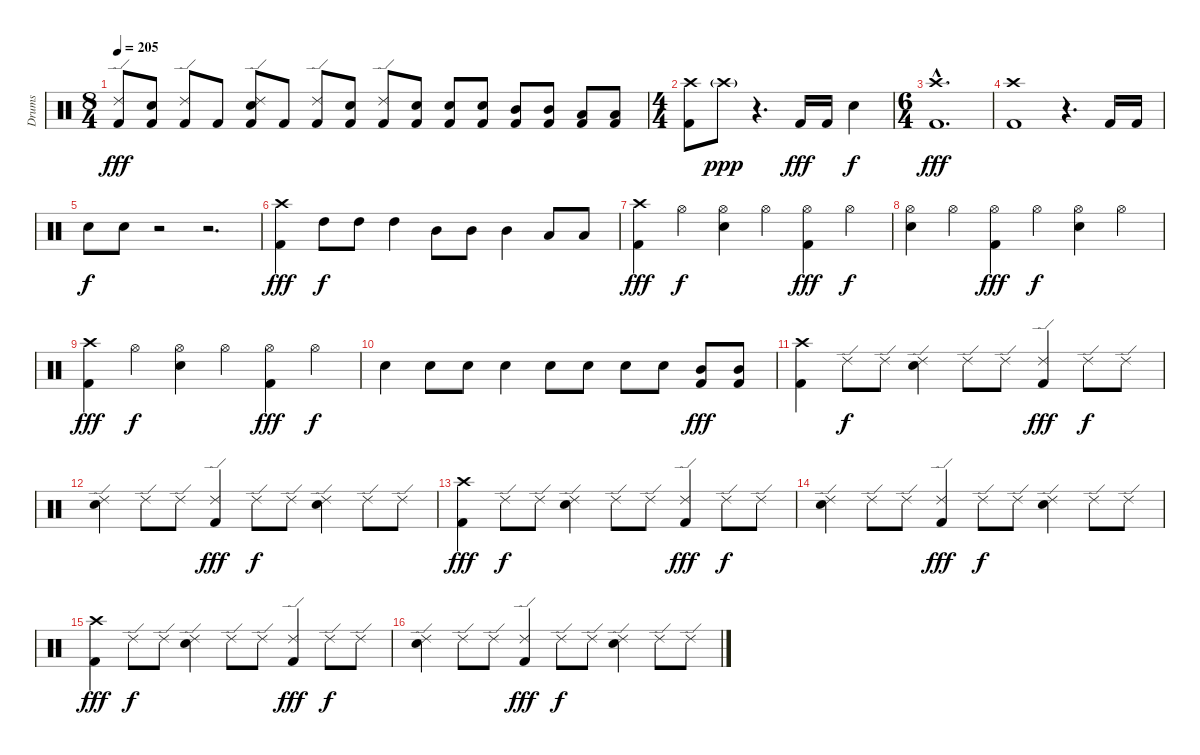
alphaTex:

\track ("Drums" "Drums") {instrument percussion}
\staff {score}
\articulation defaults
\ts (8 4)
\tempo 205
\clef neutral
\ks c
("Ride (edge) 2" "Kick (hit) 2").8{dy fff} ("Snare (hit) 2" "Kick (hit) 2").8 ("Ride (edge) 2" "Kick (hit) 2").8 "Kick (hit) 2".8 ("Ride (edge) 2" "Snare (hit) 2" "Kick (hit) 2").8 "Kick (hit) 2".8 ("Ride (edge) 2" "Kick (hit) 2").8 ("Snare (hit) 2" "Kick (hit) 2").8 ("Ride (edge) 2" "Kick (hit) 2").8 ("Snare (hit) 2" "Kick (hit) 2").8 ("Snare (hit) 2" "Kick (hit) 2").8 ("Snare (hit) 2" "Kick (hit) 2").8 ("Mid Tom (hit)" "Kick (hit) 2").8 ("Mid Tom (hit)" "Kick (hit) 2").8 ("Low Tom (hit)" "Kick (hit) 2").8 ("Low Tom (hit)" "Kick (hit) 2").8 |
\ts (4 4)
("Crash high (hit)" "Kick (hit) 2").8 "Crash high (hit)"{g}.8{dy ppp} r.4{d} "Kick (hit) 2".16{dy fff} "Kick (hit) 2".16 "Snare (hit) 2".4{dy f} |
\ts (6 4)
("Crash high (hit)"{hac} "Kick (hit) 2"{hac}).1{d dy fff} |
("Crash high (hit)" "Kick (hit) 2").1 r.4{d} "Kick (hit) 2".16 "Kick (hit) 2".16 |
"Snare (hit) 2".8{dy f} "Snare (hit) 2".8 r.2 r.2{d} |
("Crash high (hit)" "Kick (hit) 2").4{dy fff} "High Tom (hit)".8{dy f} "High Tom (hit)".8 "High Tom (hit)".4 "Mid Tom (hit)".8 "Mid Tom (hit)".8 "Mid Tom (hit)".4 "Low Tom (hit)".8 "Low Tom (hit)".8 |
("Crash high (hit)" "Kick (hit) 2").4{dy fff} "Hi-Hat (open)".4{dy f} ("Hi-Hat (open)" "Snare (hit) 2").4 "Hi-Hat (open)".4 ("Hi-Hat (open)" "Kick (hit) 2").4{dy fff} "Hi-Hat (open)".4{dy f} |
("Hi-Hat (open)" "Snare (hit) 2").4 "Hi-Hat (open)".4 ("Hi-Hat (open)" "Kick (hit) 2").4{dy fff} "Hi-Hat (open)".4{dy f} ("Hi-Hat (open)" "Snare (hit) 2").4 "Hi-Hat (open)".4 |
("Crash high (hit)" "Kick (hit) 2").4{dy fff} "Hi-Hat (open)".4{dy f} ("Hi-Hat (open)" "Snare (hit) 2").4 "Hi-Hat (open)".4 ("Hi-Hat (open)" "Kick (hit) 2").4{dy fff} "Hi-Hat (open)".4{dy f} |
"Snare (hit) 2".4 "Snare (hit) 2".8 "Snare (hit) 2".8 "Snare (hit) 2".4 "Snare (hit) 2".8 "Snare (hit) 2".8 "Snare (hit) 2".8 "Snare (hit) 2".8 ("Mid Tom (hit)" "Kick (hit) 2").8{dy fff} ("Mid Tom (hit)" "Kick (hit) 2").8 |
("Crash high (hit)" "Kick (hit) 2").4 "Ride (edge) 2".8{dy f} "Ride (edge) 2".8 ("Ride (edge) 2" "Snare (hit) 2").4 "Ride (edge) 2".8 "Ride (edge) 2".8 ("Ride (edge) 2" "Kick (hit) 2").4{dy fff} "Ride (edge) 2".8{dy f} "Ride (edge) 2".8 |
("Ride (edge) 2" "Snare (hit) 2").4 "Ride (edge) 2".8 "Ride (edge) 2".8 ("Ride (edge) 2" "Kick (hit) 2").4{dy fff} "Ride (edge) 2".8{dy f} "Ride (edge) 2".8 ("Ride (edge) 2" "Snare (hit) 2").4 "Ride (edge) 2".8 "Ride (edge) 2".8 |
("Crash high (hit)" "Kick (hit) 2").4{dy fff} "Ride (edge) 2".8{dy f} "Ride (edge) 2".8 ("Ride (edge) 2" "Snare (hit) 2").4 "Ride (edge) 2".8 "Ride (edge) 2".8 ("Ride (edge) 2" "Kick (hit) 2").4{dy fff} "Ride (edge) 2".8{dy f} "Ride (edge) 2".8 |
("Ride (edge) 2" "Snare (hit) 2").4 "Ride (edge) 2".8 "Ride (edge) 2".8 ("Ride (edge) 2" "Kick (hit) 2").4{dy fff} "Ride (edge) 2".8{dy f} "Ride (edge) 2".8 ("Ride (edge) 2" "Snare (hit) 2").4 "Ride (edge) 2".8 "Ride (edge) 2".8 |
("Crash high (hit)" "Kick (hit) 2").4{dy fff} "Ride (edge) 2".8{dy f} "Ride (edge) 2".8 ("Ride (edge) 2" "Snare (hit) 2").4 "Ride (edge) 2".8 "Ride (edge) 2".8 ("Ride (edge) 2" "Kick (hit) 2").4{dy fff} "Ride (edge) 2".8{dy f} "Ride (edge) 2".8 |
("Ride (edge) 2" "Snare (hit) 2").4 "Ride (edge) 2".8 "Ride (edge) 2".8 ("Ride (edge) 2" "Kick (hit) 2").4{dy fff} "Ride (edge) 2".8{dy f} "Ride (edge) 2".8 ("Ride (edge) 2" "Snare (hit) 2").4 "Ride (edge) 2".8 "Ride (edge) 2".8
